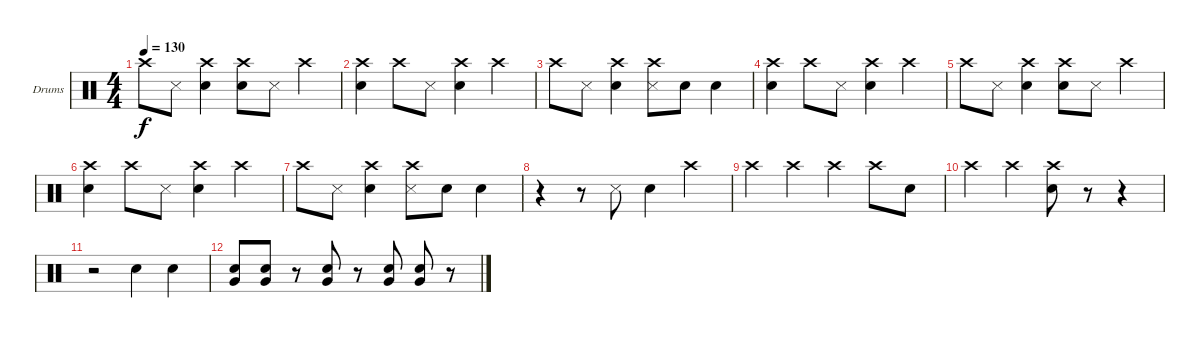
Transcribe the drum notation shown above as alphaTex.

\defaultSystemsLayout 4
\bracketExtendMode groupsimilarinstruments
\firstSystemTrackNameOrientation horizontal
\otherSystemsTrackNameOrientation horizontal
\track ("Drumkit" "Drums") {instrument percussion}
\staff {score}
\articulation defaults
\ts (4 4)
\tempo 130
\clef neutral
\ks c "Crash high (hit)".8{dy f} "Snare (side stick) 3".8
("Snare (hit) 2" "Crash high (hit)").4 ("Snare (hit) 2" "Crash high (hit)").8 "Snare (side stick) 3".8 "Crash high (hit)".4 |
("Snare (hit) 2" "Crash high (hit)").4 "Crash high (hit)".8 "Snare (side stick) 3".8 ("Snare (hit) 2" "Crash high (hit)").4 "Crash high (hit)".4 |
"Crash high (hit)".8 "Snare (side stick) 3".8 ("Snare (hit) 2" "Crash high (hit)").4 ("Snare (side stick) 3" "Crash high (hit)").8 "Snare (hit) 2".8 "Snare (hit) 2".4 |
("Snare (hit) 2" "Crash high (hit)").4 "Crash high (hit)".8 "Snare (side stick) 3".8 ("Snare (hit) 2" "Crash high (hit)").4 "Crash high (hit)".4 |
"Crash high (hit)".8 "Snare (side stick) 3".8 ("Snare (hit) 2" "Crash high (hit)").4 ("Snare (hit) 2" "Crash high (hit)").8 "Snare (side stick) 3".8 "Crash high (hit)".4 |
("Snare (hit) 2" "Crash high (hit)").4 "Crash high (hit)".8 "Snare (side stick) 3".8 ("Snare (hit) 2" "Crash high (hit)").4 "Crash high (hit)".4 |
"Crash high (hit)".8 "Snare (side stick) 3".8 ("Snare (hit) 2" "Crash high (hit)").4 ("Snare (side stick) 3" "Crash high (hit)").8 "Snare (hit) 2".8 "Snare (hit) 2".4 |
r.4 r.8 "Snare (side stick) 3".8 "Snare (hit) 2".4 "Crash high (hit)".4 |
"Crash high (hit)".4 "Crash high (hit)".4 "Crash high (hit)".4 "Crash high (hit)".8 "Snare (hit) 2".8 |
"Crash high (hit)".4 "Crash high (hit)".4 ("Crash high (hit)" "Snare (hit) 2").8 r.8 r.4 |
r.2 "Snare (hit) 2".4 "Snare (hit) 2".4 |
("Snare (hit) 2" "Very Low Tom (hit)").8 ("Snare (hit) 2" "Very Low Tom (hit)").8 r.8 ("Snare (hit) 2" "Very Low Tom (hit)").8 r.8 ("Snare (hit) 2" "Very Low Tom (hit)").8 ("Snare (hit) 2" "Very Low Tom (hit)").8 r.8
